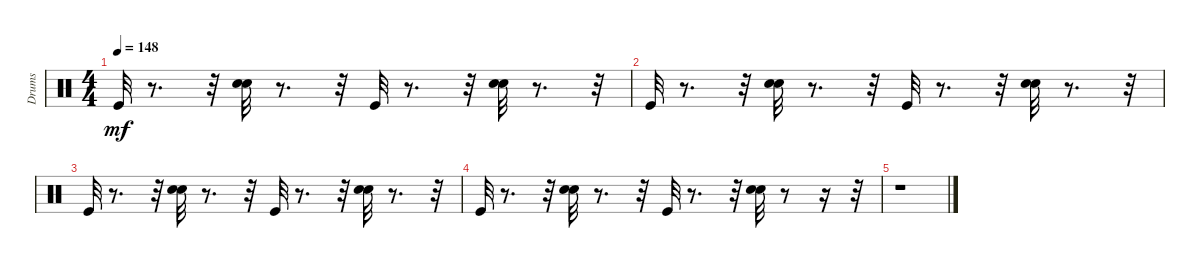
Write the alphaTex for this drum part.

\track ("Drums" "Drums") {instrument percussion}
\staff {score}
\articulation defaults
\ts (4 4)
\tempo 148
\clef neutral
\ks c "Kick (hit)".32{dy mf}
r.8{d} r.32 ("Hand Clap (hit)" "Electric Snare (hit)").32 r.8{d} r.32 "Kick (hit)".32 r.8{d} r.32 ("Hand Clap (hit)" "Electric Snare (hit)").32 r.8{d} r.32 |
"Kick (hit)".32 r.8{d} r.32 ("Hand Clap (hit)" "Electric Snare (hit)").32 r.8{d} r.32 "Kick (hit)".32 r.8{d} r.32 ("Hand Clap (hit)" "Electric Snare (hit)").32 r.8{d} r.32 |
"Kick (hit)".32 r.8{d} r.32 ("Hand Clap (hit)" "Electric Snare (hit)").32 r.8{d} r.32 "Kick (hit)".32 r.8{d} r.32 ("Hand Clap (hit)" "Electric Snare (hit)").32 r.8{d} r.32 |
"Kick (hit)".32 r.8{d} r.32 ("Hand Clap (hit)" "Electric Snare (hit)").32 r.8{d} r.32 "Kick (hit)".32 r.8{d} r.32 ("Hand Clap (hit)" "Electric Snare (hit)").32 r.8 r.16 r.32 |
r.1
